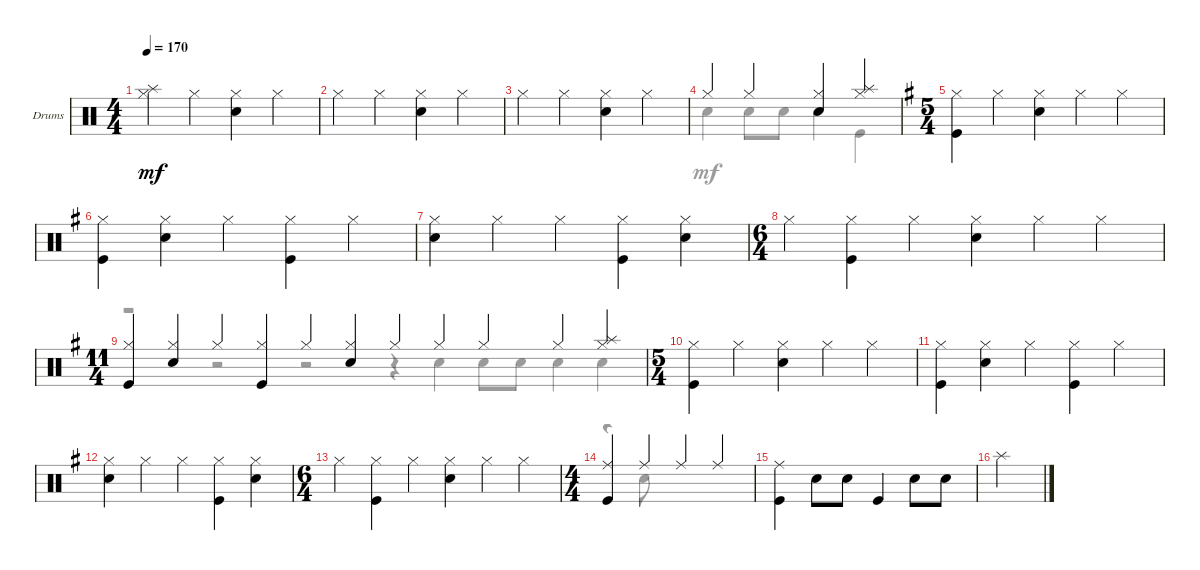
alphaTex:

\defaultSystemsLayout 4
\bracketExtendMode groupsimilarinstruments
\firstSystemTrackNameOrientation horizontal
\otherSystemsTrackNameOrientation horizontal
\track ("Drumkit" "Drums") {instrument percussion}
\staff {score}
\articulation defaults
\voice
\ts (4 4)
\tempo 170
\clef neutral
\ks c
("Hi-Hat (closed)" "Splash (hit)").4{dy mf} "Hi-Hat (closed)".4 ("Hi-Hat (closed)" "Snare (hit) 2").4 "Hi-Hat (closed)".4 |
"Hi-Hat (closed)".4 "Hi-Hat (closed)".4 ("Hi-Hat (closed)" "Snare (hit) 2").4 "Hi-Hat (closed)".4 |
"Hi-Hat (closed)".4 "Hi-Hat (closed)".4 ("Hi-Hat (closed)" "Snare (hit) 2").4 "Hi-Hat (closed)".4 |
"Hi-Hat (closed)".4 "Hi-Hat (closed)".4 ("Hi-Hat (closed)" "Snare (hit) 2").4 ("Hi-Hat (closed)" "Splash (hit)").4 |
\ts (5 4)
\ks eminor
("Hi-Hat (closed)" "Kick (hit)").4 "Hi-Hat (closed)".4 ("Hi-Hat (closed)" "Snare (hit) 2").4 "Hi-Hat (closed)".4 "Hi-Hat (closed)".4 |
("Hi-Hat (closed)" "Kick (hit)").4 ("Hi-Hat (closed)" "Snare (hit) 2").4 "Hi-Hat (closed)".4 ("Hi-Hat (closed)" "Kick (hit)").4 "Hi-Hat (closed)".4 |
("Hi-Hat (closed)" "Snare (hit) 2").4 "Hi-Hat (closed)".4 "Hi-Hat (closed)".4 ("Hi-Hat (closed)" "Kick (hit)").4 ("Hi-Hat (closed)" "Snare (hit) 2").4 |
\ts (6 4)
"Hi-Hat (closed)".4 ("Hi-Hat (closed)" "Kick (hit)").4 "Hi-Hat (closed)".4 ("Hi-Hat (closed)" "Snare (hit) 2").4 "Hi-Hat (closed)".4 "Hi-Hat (closed)".4 |
\ts (11 4)
("Hi-Hat (closed)" "Kick (hit)").4 ("Hi-Hat (closed)" "Snare (hit) 2").4 "Hi-Hat (closed)".4 ("Hi-Hat (closed)" "Kick (hit)").4 "Hi-Hat (closed)".4 ("Hi-Hat (closed)" "Snare (hit) 2").4 "Hi-Hat (closed)".4 "Hi-Hat (closed)".4 "Hi-Hat (closed)".4 "Hi-Hat (closed)".4 ("Hi-Hat (closed)" "Splash (hit)").4 |
\ts (5 4)
("Hi-Hat (closed)" "Kick (hit)").4 "Hi-Hat (closed)".4 ("Hi-Hat (closed)" "Snare (hit) 2").4 "Hi-Hat (closed)".4 "Hi-Hat (closed)".4 |
("Hi-Hat (closed)" "Kick (hit)").4 ("Hi-Hat (closed)" "Snare (hit) 2").4 "Hi-Hat (closed)".4 ("Hi-Hat (closed)" "Kick (hit)").4 "Hi-Hat (closed)".4 |
("Hi-Hat (closed)" "Snare (hit) 2").4 "Hi-Hat (closed)".4 "Hi-Hat (closed)".4 ("Hi-Hat (closed)" "Kick (hit)").4 ("Hi-Hat (closed)" "Snare (hit) 2").4 |
\ts (6 4)
"Hi-Hat (closed)".4 ("Hi-Hat (closed)" "Kick (hit)").4 "Hi-Hat (closed)".4 ("Hi-Hat (closed)" "Snare (hit) 2").4 "Hi-Hat (closed)".4 "Hi-Hat (closed)".4 |
\ts (4 4)
("Kick (hit)" "Ride (middle)").4 "Ride (middle)".4 "Ride (middle)".4 "Ride (middle)".4 |
("Kick (hit)" "Ride (middle)").4 "Snare (hit) 2".8 "Snare (hit) 2".8 "Kick (hit)".4 "Snare (hit) 2".8 "Snare (hit) 2".8 |
"Splash (hit)".2
\voice
\clef neutral
\ottava regular
\simile none
\ks c
|
|
|
"Snare (hit) 2".4 "Snare (hit) 2".8 "Snare (hit) 2".8 "Snare (hit) 2".4 "Kick (hit)".4 |
\ks eminor
|
|
|
|
r.2 r.2 r.2 r.4 "Snare (hit) 2".4 "Snare (hit) 2".8 "Snare (hit) 2".8 "Snare (hit) 2".4 "Snare (hit) 2".4 |
|
|
|
|
r.4 "Snare (hit) 2".8 |
|
